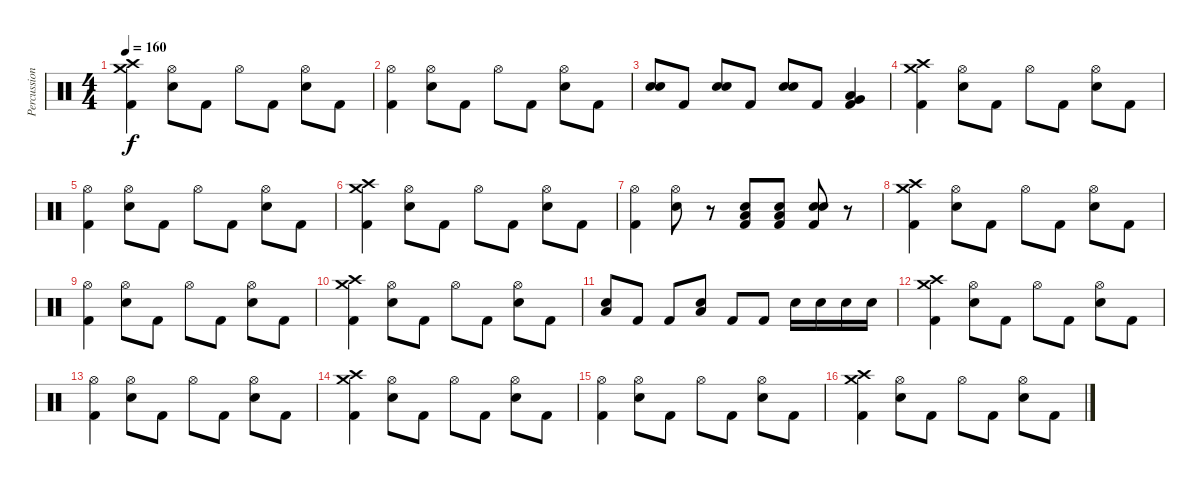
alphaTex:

\track ("Percussion" "Percussion") {instrument percussion}
\staff {score}
\articulation defaults
\ts (4 4)
\tempo 160
\clef neutral
\ks c
("Crash medium (hit)" "Crash high (hit)" "Kick (hit) 2").4{dy f} ("Hi-Hat (open)" "Electric Snare (hit)").8 "Kick (hit) 2".8 "Hi-Hat (open)".8 "Kick (hit) 2".8 ("Hi-Hat (open)" "Electric Snare (hit)").8 "Kick (hit) 2".8 |
("Hi-Hat (open)" "Kick (hit) 2").4 ("Hi-Hat (open)" "Electric Snare (hit)").8 "Kick (hit) 2".8 "Hi-Hat (open)".8 "Kick (hit) 2".8 ("Hi-Hat (open)" "Electric Snare (hit)").8 "Kick (hit) 2".8 |
("Electric Snare (hit)" "Electric Snare (hit)").8 "Kick (hit) 2".8 ("Electric Snare (hit)" "Electric Snare (hit)").8 "Kick (hit) 2".8 ("Electric Snare (hit)" "Electric Snare (hit)").8 "Kick (hit) 2".8 ("Very Low Tom (hit)" "Low Floor Tom (hit)" "Kick (hit) 2").4 |
("Crash medium (hit)" "Crash high (hit)" "Kick (hit) 2").4 ("Hi-Hat (open)" "Electric Snare (hit)").8 "Kick (hit) 2".8 "Hi-Hat (open)".8 "Kick (hit) 2".8 ("Hi-Hat (open)" "Electric Snare (hit)").8 "Kick (hit) 2".8 |
("Hi-Hat (open)" "Kick (hit) 2").4 ("Hi-Hat (open)" "Electric Snare (hit)").8 "Kick (hit) 2".8 "Hi-Hat (open)".8 "Kick (hit) 2".8 ("Hi-Hat (open)" "Electric Snare (hit)").8 "Kick (hit) 2".8 |
("Crash medium (hit)" "Crash high (hit)" "Kick (hit) 2").4 ("Hi-Hat (open)" "Electric Snare (hit)").8 "Kick (hit) 2".8 "Hi-Hat (open)".8 "Kick (hit) 2".8 ("Hi-Hat (open)" "Electric Snare (hit)").8 "Kick (hit) 2".8 |
("Hi-Hat (open)" "Kick (hit) 2").4 ("Hi-Hat (open)" "Electric Snare (hit)").8 r.8 ("Electric Snare (hit)" "Low Floor Tom (hit)" "Kick (hit) 2").8 ("Electric Snare (hit)" "Low Floor Tom (hit)" "Kick (hit) 2").8 ("Electric Snare (hit)" "Electric Snare (hit)" "Kick (hit) 2").8 r.8 |
("Crash medium (hit)" "Crash high (hit)" "Kick (hit) 2").4 ("Hi-Hat (open)" "Electric Snare (hit)").8 "Kick (hit) 2".8 "Hi-Hat (open)".8 "Kick (hit) 2".8 ("Hi-Hat (open)" "Electric Snare (hit)").8 "Kick (hit) 2".8 |
("Hi-Hat (open)" "Kick (hit) 2").4 ("Hi-Hat (open)" "Electric Snare (hit)").8 "Kick (hit) 2".8 "Hi-Hat (open)".8 "Kick (hit) 2".8 ("Hi-Hat (open)" "Electric Snare (hit)").8 "Kick (hit) 2".8 |
("Crash medium (hit)" "Crash high (hit)" "Kick (hit) 2").4 ("Hi-Hat (open)" "Electric Snare (hit)").8 "Kick (hit) 2".8 "Hi-Hat (open)".8 "Kick (hit) 2".8 ("Hi-Hat (open)" "Electric Snare (hit)").8 "Kick (hit) 2".8 |
("Electric Snare (hit)" "Low Floor Tom (hit)").8 "Kick (hit) 2".8 "Kick (hit) 2".8 ("Electric Snare (hit)" "Low Floor Tom (hit)").8 "Kick (hit) 2".8 "Kick (hit) 2".8 "Electric Snare (hit)".16 "Electric Snare (hit)".16 "Electric Snare (hit)".16 "Electric Snare (hit)".16 |
("Crash medium (hit)" "Crash high (hit)" "Kick (hit) 2").4 ("Hi-Hat (open)" "Electric Snare (hit)").8 "Kick (hit) 2".8 "Hi-Hat (open)".8 "Kick (hit) 2".8 ("Hi-Hat (open)" "Electric Snare (hit)").8 "Kick (hit) 2".8 |
("Hi-Hat (open)" "Kick (hit) 2").4 ("Hi-Hat (open)" "Electric Snare (hit)").8 "Kick (hit) 2".8 "Hi-Hat (open)".8 "Kick (hit) 2".8 ("Hi-Hat (open)" "Electric Snare (hit)").8 "Kick (hit) 2".8 |
("Crash medium (hit)" "Crash high (hit)" "Kick (hit) 2").4 ("Hi-Hat (open)" "Electric Snare (hit)").8 "Kick (hit) 2".8 "Hi-Hat (open)".8 "Kick (hit) 2".8 ("Hi-Hat (open)" "Electric Snare (hit)").8 "Kick (hit) 2".8 |
("Hi-Hat (open)" "Kick (hit) 2").4 ("Hi-Hat (open)" "Electric Snare (hit)").8 "Kick (hit) 2".8 "Hi-Hat (open)".8 "Kick (hit) 2".8 ("Hi-Hat (open)" "Electric Snare (hit)").8 "Kick (hit) 2".8 |
("Crash medium (hit)" "Crash high (hit)" "Kick (hit) 2").4 ("Hi-Hat (open)" "Electric Snare (hit)").8 "Kick (hit) 2".8 "Hi-Hat (open)".8 "Kick (hit) 2".8 ("Hi-Hat (open)" "Electric Snare (hit)").8 "Kick (hit) 2".8
